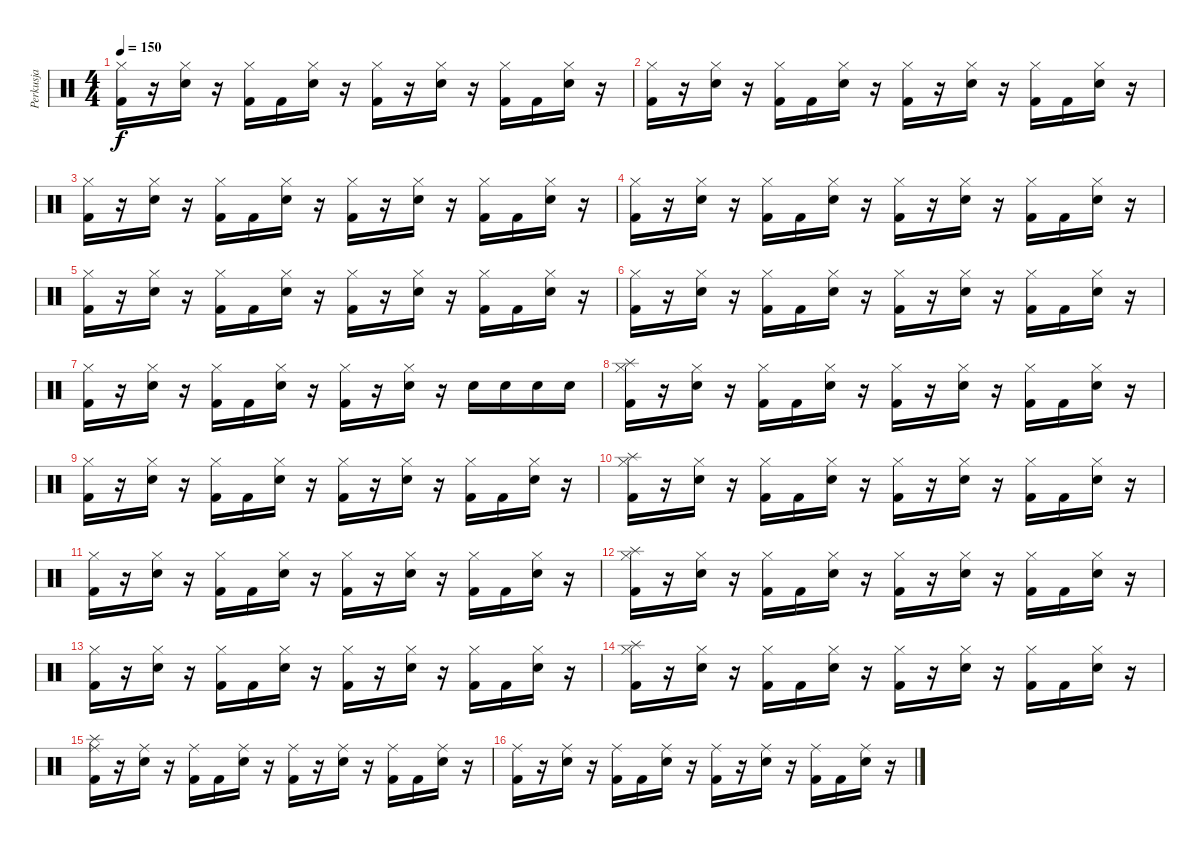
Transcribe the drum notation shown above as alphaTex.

\track ("Perkusja" "Perkusja") {instrument percussion}
\staff {score}
\articulation defaults
\ts (4 4)
\tempo 150
\clef neutral
\ks c
("Hi-Hat (closed)" "Kick (hit) 2").16{dy f} r.16 ("Hi-Hat (closed)" "Electric Snare (hit)").16 r.16 ("Hi-Hat (closed)" "Kick (hit) 2").16 "Kick (hit) 2".16 ("Hi-Hat (closed)" "Electric Snare (hit)").16 r.16 ("Hi-Hat (closed)" "Kick (hit) 2").16 r.16 ("Hi-Hat (closed)" "Electric Snare (hit)").16 r.16 ("Hi-Hat (closed)" "Kick (hit) 2").16 "Kick (hit) 2".16 ("Hi-Hat (closed)" "Electric Snare (hit)").16 r.16 |
("Hi-Hat (closed)" "Kick (hit) 2").16 r.16 ("Hi-Hat (closed)" "Electric Snare (hit)").16 r.16 ("Hi-Hat (closed)" "Kick (hit) 2").16 "Kick (hit) 2".16 ("Hi-Hat (closed)" "Electric Snare (hit)").16 r.16 ("Hi-Hat (closed)" "Kick (hit) 2").16 r.16 ("Hi-Hat (closed)" "Electric Snare (hit)").16 r.16 ("Hi-Hat (closed)" "Kick (hit) 2").16 "Kick (hit) 2".16 ("Hi-Hat (closed)" "Electric Snare (hit)").16 r.16 |
("Hi-Hat (closed)" "Kick (hit) 2").16 r.16 ("Hi-Hat (closed)" "Electric Snare (hit)").16 r.16 ("Hi-Hat (closed)" "Kick (hit) 2").16 "Kick (hit) 2".16 ("Hi-Hat (closed)" "Electric Snare (hit)").16 r.16 ("Hi-Hat (closed)" "Kick (hit) 2").16 r.16 ("Hi-Hat (closed)" "Electric Snare (hit)").16 r.16 ("Hi-Hat (closed)" "Kick (hit) 2").16 "Kick (hit) 2".16 ("Hi-Hat (closed)" "Electric Snare (hit)").16 r.16 |
("Hi-Hat (closed)" "Kick (hit) 2").16 r.16 ("Hi-Hat (closed)" "Electric Snare (hit)").16 r.16 ("Hi-Hat (closed)" "Kick (hit) 2").16 "Kick (hit) 2".16 ("Hi-Hat (closed)" "Electric Snare (hit)").16 r.16 ("Hi-Hat (closed)" "Kick (hit) 2").16 r.16 ("Hi-Hat (closed)" "Electric Snare (hit)").16 r.16 ("Hi-Hat (closed)" "Kick (hit) 2").16 "Kick (hit) 2".16 ("Hi-Hat (closed)" "Electric Snare (hit)").16 r.16 |
("Hi-Hat (closed)" "Kick (hit) 2").16 r.16 ("Hi-Hat (closed)" "Electric Snare (hit)").16 r.16 ("Hi-Hat (closed)" "Kick (hit) 2").16 "Kick (hit) 2".16 ("Hi-Hat (closed)" "Electric Snare (hit)").16 r.16 ("Hi-Hat (closed)" "Kick (hit) 2").16 r.16 ("Hi-Hat (closed)" "Electric Snare (hit)").16 r.16 ("Hi-Hat (closed)" "Kick (hit) 2").16 "Kick (hit) 2".16 ("Hi-Hat (closed)" "Electric Snare (hit)").16 r.16 |
("Hi-Hat (closed)" "Kick (hit) 2").16 r.16 ("Hi-Hat (closed)" "Electric Snare (hit)").16 r.16 ("Hi-Hat (closed)" "Kick (hit) 2").16 "Kick (hit) 2".16 ("Hi-Hat (closed)" "Electric Snare (hit)").16 r.16 ("Hi-Hat (closed)" "Kick (hit) 2").16 r.16 ("Hi-Hat (closed)" "Electric Snare (hit)").16 r.16 ("Hi-Hat (closed)" "Kick (hit) 2").16 "Kick (hit) 2".16 ("Hi-Hat (closed)" "Electric Snare (hit)").16 r.16 |
("Hi-Hat (closed)" "Kick (hit) 2").16 r.16 ("Hi-Hat (closed)" "Electric Snare (hit)").16 r.16 ("Hi-Hat (closed)" "Kick (hit) 2").16 "Kick (hit) 2".16 ("Hi-Hat (closed)" "Electric Snare (hit)").16 r.16 ("Hi-Hat (closed)" "Kick (hit) 2").16 r.16 ("Hi-Hat (closed)" "Electric Snare (hit)").16 r.16 "Electric Snare (hit)".16 "Electric Snare (hit)".16 "Electric Snare (hit)".16 "Electric Snare (hit)".16 |
("Splash (hit)" "Hi-Hat (closed)" "Kick (hit) 2").16 r.16 ("Hi-Hat (closed)" "Electric Snare (hit)").16 r.16 ("Hi-Hat (closed)" "Kick (hit) 2").16 "Kick (hit) 2".16 ("Hi-Hat (closed)" "Electric Snare (hit)").16 r.16 ("Hi-Hat (closed)" "Kick (hit) 2").16 r.16 ("Hi-Hat (closed)" "Electric Snare (hit)").16 r.16 ("Hi-Hat (closed)" "Kick (hit) 2").16 "Kick (hit) 2".16 ("Hi-Hat (closed)" "Electric Snare (hit)").16 r.16 |
("Hi-Hat (closed)" "Kick (hit) 2").16 r.16 ("Hi-Hat (closed)" "Electric Snare (hit)").16 r.16 ("Hi-Hat (closed)" "Kick (hit) 2").16 "Kick (hit) 2".16 ("Hi-Hat (closed)" "Electric Snare (hit)").16 r.16 ("Hi-Hat (closed)" "Kick (hit) 2").16 r.16 ("Hi-Hat (closed)" "Electric Snare (hit)").16 r.16 ("Hi-Hat (closed)" "Kick (hit) 2").16 "Kick (hit) 2".16 ("Hi-Hat (closed)" "Electric Snare (hit)").16 r.16 |
("Splash (hit)" "Hi-Hat (closed)" "Kick (hit) 2").16 r.16 ("Hi-Hat (closed)" "Electric Snare (hit)").16 r.16 ("Hi-Hat (closed)" "Kick (hit) 2").16 "Kick (hit) 2".16 ("Hi-Hat (closed)" "Electric Snare (hit)").16 r.16 ("Hi-Hat (closed)" "Kick (hit) 2").16 r.16 ("Hi-Hat (closed)" "Electric Snare (hit)").16 r.16 ("Hi-Hat (closed)" "Kick (hit) 2").16 "Kick (hit) 2".16 ("Hi-Hat (closed)" "Electric Snare (hit)").16 r.16 |
("Hi-Hat (closed)" "Kick (hit) 2").16 r.16 ("Hi-Hat (closed)" "Electric Snare (hit)").16 r.16 ("Hi-Hat (closed)" "Kick (hit) 2").16 "Kick (hit) 2".16 ("Hi-Hat (closed)" "Electric Snare (hit)").16 r.16 ("Hi-Hat (closed)" "Kick (hit) 2").16 r.16 ("Hi-Hat (closed)" "Electric Snare (hit)").16 r.16 ("Hi-Hat (closed)" "Kick (hit) 2").16 "Kick (hit) 2".16 ("Hi-Hat (closed)" "Electric Snare (hit)").16 r.16 |
("Splash (hit)" "Hi-Hat (closed)" "Kick (hit) 2").16 r.16 ("Hi-Hat (closed)" "Electric Snare (hit)").16 r.16 ("Hi-Hat (closed)" "Kick (hit) 2").16 "Kick (hit) 2".16 ("Hi-Hat (closed)" "Electric Snare (hit)").16 r.16 ("Hi-Hat (closed)" "Kick (hit) 2").16 r.16 ("Hi-Hat (closed)" "Electric Snare (hit)").16 r.16 ("Hi-Hat (closed)" "Kick (hit) 2").16 "Kick (hit) 2".16 ("Hi-Hat (closed)" "Electric Snare (hit)").16 r.16 |
("Hi-Hat (closed)" "Kick (hit) 2").16 r.16 ("Hi-Hat (closed)" "Electric Snare (hit)").16 r.16 ("Hi-Hat (closed)" "Kick (hit) 2").16 "Kick (hit) 2".16 ("Hi-Hat (closed)" "Electric Snare (hit)").16 r.16 ("Hi-Hat (closed)" "Kick (hit) 2").16 r.16 ("Hi-Hat (closed)" "Electric Snare (hit)").16 r.16 ("Hi-Hat (closed)" "Kick (hit) 2").16 "Kick (hit) 2".16 ("Hi-Hat (closed)" "Electric Snare (hit)").16 r.16 |
("Splash (hit)" "Hi-Hat (closed)" "Kick (hit) 2").16 r.16 ("Hi-Hat (closed)" "Electric Snare (hit)").16 r.16 ("Hi-Hat (closed)" "Kick (hit) 2").16 "Kick (hit) 2".16 ("Hi-Hat (closed)" "Electric Snare (hit)").16 r.16 ("Hi-Hat (closed)" "Kick (hit) 2").16 r.16 ("Hi-Hat (closed)" "Electric Snare (hit)").16 r.16 ("Hi-Hat (closed)" "Kick (hit) 2").16 "Kick (hit) 2".16 ("Hi-Hat (closed)" "Electric Snare (hit)").16 r.16 |
("Splash (hit)" "Ride (middle)" "Kick (hit) 2").16 r.16 ("Ride (middle)" "Electric Snare (hit)").16 r.16 ("Ride (middle)" "Kick (hit) 2").16 "Kick (hit) 2".16 ("Ride (middle)" "Electric Snare (hit)").16 r.16 ("Ride (middle)" "Kick (hit) 2").16 r.16 ("Ride (middle)" "Electric Snare (hit)").16 r.16 ("Ride (middle)" "Kick (hit) 2").16 "Kick (hit) 2".16 ("Ride (middle)" "Electric Snare (hit)").16 r.16 |
("Ride (middle)" "Kick (hit) 2").16 r.16 ("Ride (middle)" "Electric Snare (hit)").16 r.16 ("Ride (middle)" "Kick (hit) 2").16 "Kick (hit) 2".16 ("Ride (middle)" "Electric Snare (hit)").16 r.16 ("Ride (middle)" "Kick (hit) 2").16 r.16 ("Ride (middle)" "Electric Snare (hit)").16 r.16 ("Ride (middle)" "Kick (hit) 2").16 "Kick (hit) 2".16 ("Ride (middle)" "Electric Snare (hit)").16 r.16
